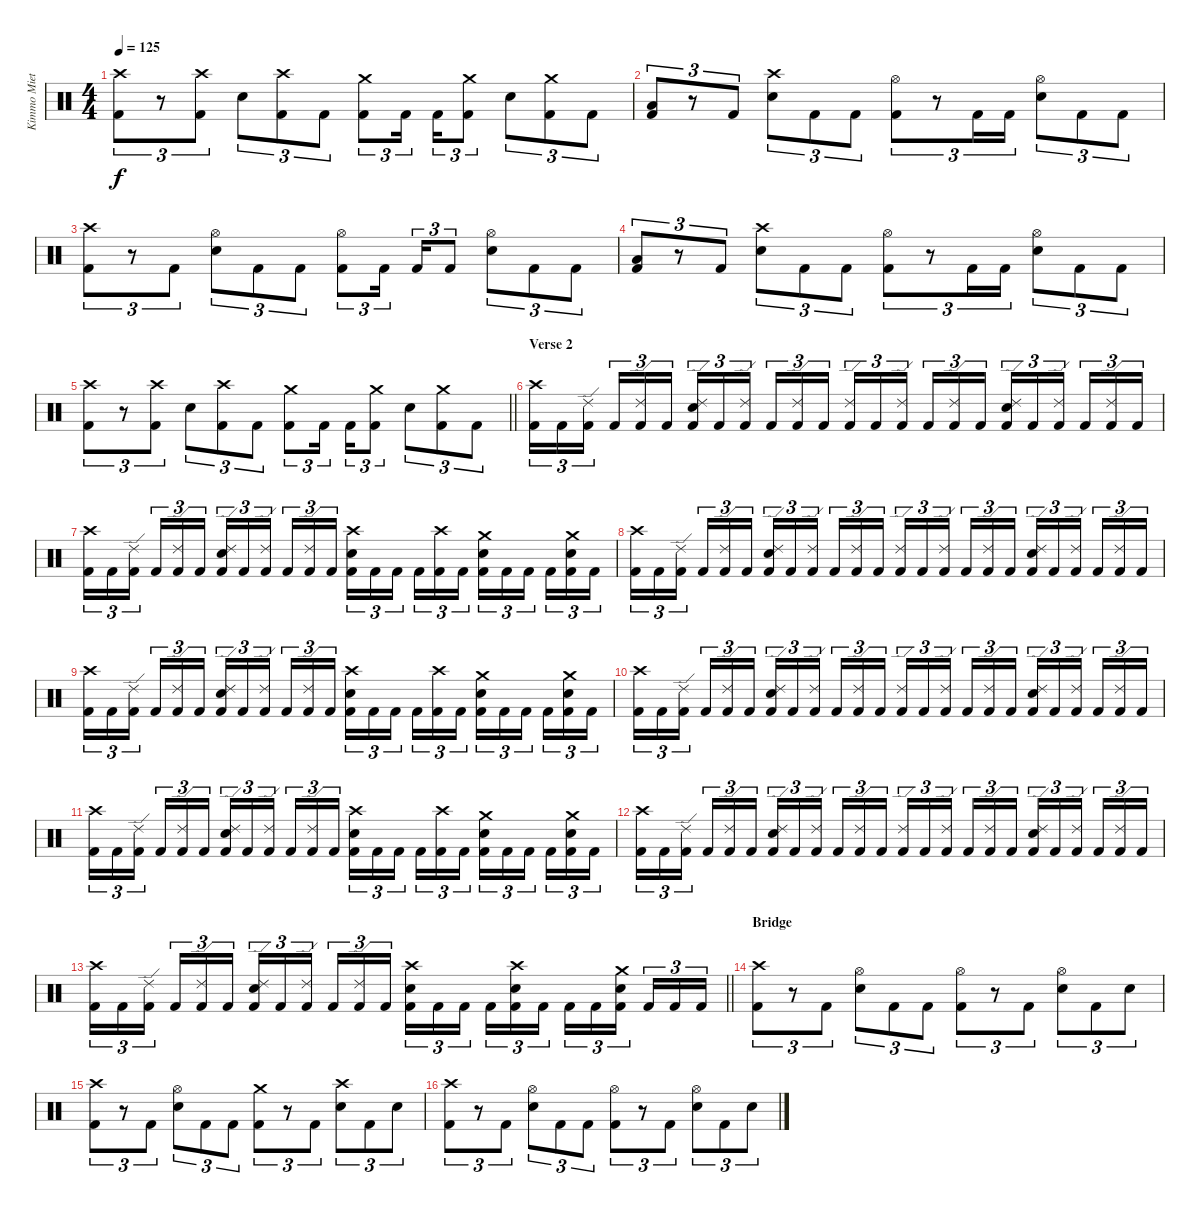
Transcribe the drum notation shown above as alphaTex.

\track ("Kimmo Miettinen" "Kimmo Miet") {instrument percussion}
\staff {score}
\articulation defaults
\ts (4 4)
\tempo 125
\clef neutral
\ks c
("Crash high (hit)" "Kick (hit) 2").8{tu (3 2) dy f} r.8{tu (3 2)} ("Crash high (hit)" "Kick (hit) 2").8{tu (3 2)} "Electric Snare (hit)".8{tu (3 2)} ("Crash high (hit)" "Kick (hit) 2").8{tu (3 2)} "Kick (hit) 2".8{tu (3 2)} ("Crash medium (hit)" "Kick (hit) 2").8{tu (3 2)} "Kick (hit) 2".16{tu (3 2) beam splitsecondary} "Kick (hit) 2".16{tu (3 2)} ("Crash medium (hit)" "Kick (hit) 2").8{tu (3 2)} "Electric Snare (hit)".8{tu (3 2)} ("Crash medium (hit)" "Kick (hit) 2").8{tu (3 2)} "Kick (hit) 2".8{tu (3 2)} |
("Low Floor Tom (hit)" "Kick (hit) 2").8{tu (3 2)} r.8{tu (3 2)} "Kick (hit) 2".8{tu (3 2)} ("Crash high (hit)" "Electric Snare (hit)").8{tu (3 2)} "Kick (hit) 2".8{tu (3 2)} "Kick (hit) 2".8{tu (3 2)} ("Hi-Hat (open)" "Kick (hit) 2").8{tu (3 2)} r.8{tu (3 2)} "Kick (hit) 2".16{tu (3 2)} "Kick (hit) 2".16{tu (3 2)} ("Hi-Hat (open)" "Electric Snare (hit)").8{tu (3 2)} "Kick (hit) 2".8{tu (3 2)} "Kick (hit) 2".8{tu (3 2)} |
("Crash high (hit)" "Kick (hit) 2").8{tu (3 2)} r.8{tu (3 2)} "Kick (hit) 2".8{tu (3 2)} ("Hi-Hat (open)" "Electric Snare (hit)").8{tu (3 2)} "Kick (hit) 2".8{tu (3 2)} "Kick (hit) 2".8{tu (3 2)} ("Hi-Hat (open)" "Kick (hit) 2").8{tu (3 2)} "Kick (hit) 2".16{tu (3 2) beam splitsecondary} "Kick (hit) 2".16{tu (3 2)} "Kick (hit) 2".8{tu (3 2)} ("Hi-Hat (open)" "Electric Snare (hit)").8{tu (3 2)} "Kick (hit) 2".8{tu (3 2)} "Kick (hit) 2".8{tu (3 2)} |
("Low Floor Tom (hit)" "Kick (hit) 2").8{tu (3 2)} r.8{tu (3 2)} "Kick (hit) 2".8{tu (3 2)} ("Crash high (hit)" "Electric Snare (hit)").8{tu (3 2)} "Kick (hit) 2".8{tu (3 2)} "Kick (hit) 2".8{tu (3 2)} ("Hi-Hat (open)" "Kick (hit) 2").8{tu (3 2)} r.8{tu (3 2)} "Kick (hit) 2".16{tu (3 2)} "Kick (hit) 2".16{tu (3 2)} ("Hi-Hat (open)" "Electric Snare (hit)").8{tu (3 2)} "Kick (hit) 2".8{tu (3 2)} "Kick (hit) 2".8{tu (3 2)} |
\barLineRight lightlight
("Crash high (hit)" "Kick (hit) 2").8{tu (3 2)} r.8{tu (3 2)} ("Crash high (hit)" "Kick (hit) 2").8{tu (3 2)} "Electric Snare (hit)".8{tu (3 2)} ("Crash high (hit)" "Kick (hit) 2").8{tu (3 2)} "Kick (hit) 2".8{tu (3 2)} ("Crash medium (hit)" "Kick (hit) 2").8{tu (3 2)} "Kick (hit) 2".16{tu (3 2) beam splitsecondary} "Kick (hit) 2".16{tu (3 2)} ("Crash medium (hit)" "Kick (hit) 2").8{tu (3 2)} "Electric Snare (hit)".8{tu (3 2)} ("Crash medium (hit)" "Kick (hit) 2").8{tu (3 2)} "Kick (hit) 2".8{tu (3 2)} |
\section ("" "Verse 2")
("Crash high (hit)" "Kick (hit) 2").16{tu (3 2)} "Kick (hit) 2".16{tu (3 2)} ("Ride (edge) 2" "Kick (hit) 2").16{tu (3 2) beam splitsecondary} "Kick (hit) 2".16{tu (3 2)} ("Ride (edge) 2" "Kick (hit) 2").16{tu (3 2)} "Kick (hit) 2".16{tu (3 2)} ("Ride (edge) 2" "Electric Snare (hit)" "Kick (hit) 2").16{tu (3 2)} "Kick (hit) 2".16{tu (3 2)} ("Ride (edge) 2" "Kick (hit) 2").16{tu (3 2) beam splitsecondary} "Kick (hit) 2".16{tu (3 2)} ("Ride (edge) 2" "Kick (hit) 2").16{tu (3 2)} "Kick (hit) 2".16{tu (3 2)} ("Ride (edge) 2" "Kick (hit) 2").16{tu (3 2)} "Kick (hit) 2".16{tu (3 2)} ("Ride (edge) 2" "Kick (hit) 2").16{tu (3 2) beam splitsecondary} "Kick (hit) 2".16{tu (3 2)} ("Ride (edge) 2" "Kick (hit) 2").16{tu (3 2)} "Kick (hit) 2".16{tu (3 2)} ("Ride (edge) 2" "Electric Snare (hit)" "Kick (hit) 2").16{tu (3 2)} "Kick (hit) 2".16{tu (3 2)} ("Ride (edge) 2" "Kick (hit) 2").16{tu (3 2) beam splitsecondary} "Kick (hit) 2".16{tu (3 2)} ("Ride (edge) 2" "Kick (hit) 2").16{tu (3 2)} "Kick (hit) 2".16{tu (3 2)} |
("Crash high (hit)" "Kick (hit) 2").16{tu (3 2)} "Kick (hit) 2".16{tu (3 2)} ("Ride (edge) 2" "Kick (hit) 2").16{tu (3 2) beam splitsecondary} "Kick (hit) 2".16{tu (3 2)} ("Ride (edge) 2" "Kick (hit) 2").16{tu (3 2)} "Kick (hit) 2".16{tu (3 2)} ("Ride (edge) 2" "Electric Snare (hit)" "Kick (hit) 2").16{tu (3 2)} "Kick (hit) 2".16{tu (3 2)} ("Ride (edge) 2" "Kick (hit) 2").16{tu (3 2) beam splitsecondary} "Kick (hit) 2".16{tu (3 2)} ("Ride (edge) 2" "Kick (hit) 2").16{tu (3 2)} "Kick (hit) 2".16{tu (3 2)} ("Crash high (hit)" "Electric Snare (hit)" "Kick (hit) 2").16{tu (3 2)} "Kick (hit) 2".16{tu (3 2)} "Kick (hit) 2".16{tu (3 2) beam splitsecondary} "Kick (hit) 2".16{tu (3 2)} ("Crash high (hit)" "Kick (hit) 2").16{tu (3 2)} "Kick (hit) 2".16{tu (3 2)} ("Crash medium (hit)" "Electric Snare (hit)" "Kick (hit) 2").16{tu (3 2)} "Kick (hit) 2".16{tu (3 2)} "Kick (hit) 2".16{tu (3 2) beam splitsecondary} "Kick (hit) 2".16{tu (3 2)} ("Crash medium (hit)" "Electric Snare (hit)" "Kick (hit) 2").16{tu (3 2)} "Kick (hit) 2".16{tu (3 2)} |
("Crash high (hit)" "Kick (hit) 2").16{tu (3 2)} "Kick (hit) 2".16{tu (3 2)} ("Ride (edge) 2" "Kick (hit) 2").16{tu (3 2) beam splitsecondary} "Kick (hit) 2".16{tu (3 2)} ("Ride (edge) 2" "Kick (hit) 2").16{tu (3 2)} "Kick (hit) 2".16{tu (3 2)} ("Ride (edge) 2" "Electric Snare (hit)" "Kick (hit) 2").16{tu (3 2)} "Kick (hit) 2".16{tu (3 2)} ("Ride (edge) 2" "Kick (hit) 2").16{tu (3 2) beam splitsecondary} "Kick (hit) 2".16{tu (3 2)} ("Ride (edge) 2" "Kick (hit) 2").16{tu (3 2)} "Kick (hit) 2".16{tu (3 2)} ("Ride (edge) 2" "Kick (hit) 2").16{tu (3 2)} "Kick (hit) 2".16{tu (3 2)} ("Ride (edge) 2" "Kick (hit) 2").16{tu (3 2) beam splitsecondary} "Kick (hit) 2".16{tu (3 2)} ("Ride (edge) 2" "Kick (hit) 2").16{tu (3 2)} "Kick (hit) 2".16{tu (3 2)} ("Ride (edge) 2" "Electric Snare (hit)" "Kick (hit) 2").16{tu (3 2)} "Kick (hit) 2".16{tu (3 2)} ("Ride (edge) 2" "Kick (hit) 2").16{tu (3 2) beam splitsecondary} "Kick (hit) 2".16{tu (3 2)} ("Ride (edge) 2" "Kick (hit) 2").16{tu (3 2)} "Kick (hit) 2".16{tu (3 2)} |
("Crash high (hit)" "Kick (hit) 2").16{tu (3 2)} "Kick (hit) 2".16{tu (3 2)} ("Ride (edge) 2" "Kick (hit) 2").16{tu (3 2) beam splitsecondary} "Kick (hit) 2".16{tu (3 2)} ("Ride (edge) 2" "Kick (hit) 2").16{tu (3 2)} "Kick (hit) 2".16{tu (3 2)} ("Ride (edge) 2" "Electric Snare (hit)" "Kick (hit) 2").16{tu (3 2)} "Kick (hit) 2".16{tu (3 2)} ("Ride (edge) 2" "Kick (hit) 2").16{tu (3 2) beam splitsecondary} "Kick (hit) 2".16{tu (3 2)} ("Ride (edge) 2" "Kick (hit) 2").16{tu (3 2)} "Kick (hit) 2".16{tu (3 2)} ("Crash high (hit)" "Electric Snare (hit)" "Kick (hit) 2").16{tu (3 2)} "Kick (hit) 2".16{tu (3 2)} "Kick (hit) 2".16{tu (3 2) beam splitsecondary} "Kick (hit) 2".16{tu (3 2)} ("Crash high (hit)" "Kick (hit) 2").16{tu (3 2)} "Kick (hit) 2".16{tu (3 2)} ("Crash medium (hit)" "Electric Snare (hit)" "Kick (hit) 2").16{tu (3 2)} "Kick (hit) 2".16{tu (3 2)} "Kick (hit) 2".16{tu (3 2) beam splitsecondary} "Kick (hit) 2".16{tu (3 2)} ("Crash medium (hit)" "Electric Snare (hit)" "Kick (hit) 2").16{tu (3 2)} "Kick (hit) 2".16{tu (3 2)} |
("Crash high (hit)" "Kick (hit) 2").16{tu (3 2)} "Kick (hit) 2".16{tu (3 2)} ("Ride (edge) 2" "Kick (hit) 2").16{tu (3 2) beam splitsecondary} "Kick (hit) 2".16{tu (3 2)} ("Ride (edge) 2" "Kick (hit) 2").16{tu (3 2)} "Kick (hit) 2".16{tu (3 2)} ("Ride (edge) 2" "Electric Snare (hit)" "Kick (hit) 2").16{tu (3 2)} "Kick (hit) 2".16{tu (3 2)} ("Ride (edge) 2" "Kick (hit) 2").16{tu (3 2) beam splitsecondary} "Kick (hit) 2".16{tu (3 2)} ("Ride (edge) 2" "Kick (hit) 2").16{tu (3 2)} "Kick (hit) 2".16{tu (3 2)} ("Ride (edge) 2" "Kick (hit) 2").16{tu (3 2)} "Kick (hit) 2".16{tu (3 2)} ("Ride (edge) 2" "Kick (hit) 2").16{tu (3 2) beam splitsecondary} "Kick (hit) 2".16{tu (3 2)} ("Ride (edge) 2" "Kick (hit) 2").16{tu (3 2)} "Kick (hit) 2".16{tu (3 2)} ("Ride (edge) 2" "Electric Snare (hit)" "Kick (hit) 2").16{tu (3 2)} "Kick (hit) 2".16{tu (3 2)} ("Ride (edge) 2" "Kick (hit) 2").16{tu (3 2) beam splitsecondary} "Kick (hit) 2".16{tu (3 2)} ("Ride (edge) 2" "Kick (hit) 2").16{tu (3 2)} "Kick (hit) 2".16{tu (3 2)} |
("Crash high (hit)" "Kick (hit) 2").16{tu (3 2)} "Kick (hit) 2".16{tu (3 2)} ("Ride (edge) 2" "Kick (hit) 2").16{tu (3 2) beam splitsecondary} "Kick (hit) 2".16{tu (3 2)} ("Ride (edge) 2" "Kick (hit) 2").16{tu (3 2)} "Kick (hit) 2".16{tu (3 2)} ("Ride (edge) 2" "Electric Snare (hit)" "Kick (hit) 2").16{tu (3 2)} "Kick (hit) 2".16{tu (3 2)} ("Ride (edge) 2" "Kick (hit) 2").16{tu (3 2) beam splitsecondary} "Kick (hit) 2".16{tu (3 2)} ("Ride (edge) 2" "Kick (hit) 2").16{tu (3 2)} "Kick (hit) 2".16{tu (3 2)} ("Crash high (hit)" "Electric Snare (hit)" "Kick (hit) 2").16{tu (3 2)} "Kick (hit) 2".16{tu (3 2)} "Kick (hit) 2".16{tu (3 2) beam splitsecondary} "Kick (hit) 2".16{tu (3 2)} ("Crash high (hit)" "Kick (hit) 2").16{tu (3 2)} "Kick (hit) 2".16{tu (3 2)} ("Crash medium (hit)" "Electric Snare (hit)" "Kick (hit) 2").16{tu (3 2)} "Kick (hit) 2".16{tu (3 2)} "Kick (hit) 2".16{tu (3 2) beam splitsecondary} "Kick (hit) 2".16{tu (3 2)} ("Crash medium (hit)" "Electric Snare (hit)" "Kick (hit) 2").16{tu (3 2)} "Kick (hit) 2".16{tu (3 2)} |
("Crash high (hit)" "Kick (hit) 2").16{tu (3 2)} "Kick (hit) 2".16{tu (3 2)} ("Ride (edge) 2" "Kick (hit) 2").16{tu (3 2) beam splitsecondary} "Kick (hit) 2".16{tu (3 2)} ("Ride (edge) 2" "Kick (hit) 2").16{tu (3 2)} "Kick (hit) 2".16{tu (3 2)} ("Ride (edge) 2" "Electric Snare (hit)" "Kick (hit) 2").16{tu (3 2)} "Kick (hit) 2".16{tu (3 2)} ("Ride (edge) 2" "Kick (hit) 2").16{tu (3 2) beam splitsecondary} "Kick (hit) 2".16{tu (3 2)} ("Ride (edge) 2" "Kick (hit) 2").16{tu (3 2)} "Kick (hit) 2".16{tu (3 2)} ("Ride (edge) 2" "Kick (hit) 2").16{tu (3 2)} "Kick (hit) 2".16{tu (3 2)} ("Ride (edge) 2" "Kick (hit) 2").16{tu (3 2) beam splitsecondary} "Kick (hit) 2".16{tu (3 2)} ("Ride (edge) 2" "Kick (hit) 2").16{tu (3 2)} "Kick (hit) 2".16{tu (3 2)} ("Ride (edge) 2" "Electric Snare (hit)" "Kick (hit) 2").16{tu (3 2)} "Kick (hit) 2".16{tu (3 2)} ("Ride (edge) 2" "Kick (hit) 2").16{tu (3 2) beam splitsecondary} "Kick (hit) 2".16{tu (3 2)} ("Ride (edge) 2" "Kick (hit) 2").16{tu (3 2)} "Kick (hit) 2".16{tu (3 2)} |
\barLineRight lightlight
("Crash high (hit)" "Kick (hit) 2").16{tu (3 2)} "Kick (hit) 2".16{tu (3 2)} ("Ride (edge) 2" "Kick (hit) 2").16{tu (3 2) beam splitsecondary} "Kick (hit) 2".16{tu (3 2)} ("Ride (edge) 2" "Kick (hit) 2").16{tu (3 2)} "Kick (hit) 2".16{tu (3 2)} ("Ride (edge) 2" "Electric Snare (hit)" "Kick (hit) 2").16{tu (3 2)} "Kick (hit) 2".16{tu (3 2)} ("Ride (edge) 2" "Kick (hit) 2").16{tu (3 2) beam splitsecondary} "Kick (hit) 2".16{tu (3 2)} ("Ride (edge) 2" "Kick (hit) 2").16{tu (3 2)} "Kick (hit) 2".16{tu (3 2)} ("Crash high (hit)" "Electric Snare (hit)" "Kick (hit) 2").16{tu (3 2)} "Kick (hit) 2".16{tu (3 2)} "Kick (hit) 2".16{tu (3 2) beam splitsecondary} "Kick (hit) 2".16{tu (3 2)} ("Crash high (hit)" "Electric Snare (hit)" "Kick (hit) 2").16{tu (3 2)} "Kick (hit) 2".16{tu (3 2)} "Kick (hit) 2".16{tu (3 2)} "Kick (hit) 2".16{tu (3 2)} ("Crash medium (hit)" "Electric Snare (hit)" "Kick (hit) 2").16{tu (3 2) beam splitsecondary} "Kick (hit) 2".16{tu (3 2)} "Kick (hit) 2".16{tu (3 2)} "Kick (hit) 2".16{tu (3 2)} |
\section ("" "Bridge")
("Crash high (hit)" "Kick (hit) 2").8{tu (3 2)} r.8{tu (3 2)} "Kick (hit) 2".8{tu (3 2)} ("Hi-Hat (open)" "Electric Snare (hit)").8{tu (3 2)} "Kick (hit) 2".8{tu (3 2)} "Kick (hit) 2".8{tu (3 2)} ("Hi-Hat (open)" "Kick (hit) 2").8{tu (3 2)} r.8{tu (3 2)} "Kick (hit) 2".8{tu (3 2)} ("Hi-Hat (open)" "Electric Snare (hit)").8{tu (3 2)} "Kick (hit) 2".8{tu (3 2)} "Electric Snare (hit)".8{tu (3 2)} |
("Crash high (hit)" "Kick (hit) 2").8{tu (3 2)} r.8{tu (3 2)} "Kick (hit) 2".8{tu (3 2)} ("Hi-Hat (open)" "Electric Snare (hit)").8{tu (3 2)} "Kick (hit) 2".8{tu (3 2)} "Kick (hit) 2".8{tu (3 2)} ("Crash medium (hit)" "Kick (hit) 2").8{tu (3 2)} r.8{tu (3 2)} "Kick (hit) 2".8{tu (3 2)} ("Crash high (hit)" "Electric Snare (hit)").8{tu (3 2)} "Kick (hit) 2".8{tu (3 2)} "Electric Snare (hit)".8{tu (3 2)} |
("Crash high (hit)" "Kick (hit) 2").8{tu (3 2)} r.8{tu (3 2)} "Kick (hit) 2".8{tu (3 2)} ("Hi-Hat (open)" "Electric Snare (hit)").8{tu (3 2)} "Kick (hit) 2".8{tu (3 2)} "Kick (hit) 2".8{tu (3 2)} ("Hi-Hat (open)" "Kick (hit) 2").8{tu (3 2)} r.8{tu (3 2)} "Kick (hit) 2".8{tu (3 2)} ("Hi-Hat (open)" "Electric Snare (hit)").8{tu (3 2)} "Kick (hit) 2".8{tu (3 2)} "Electric Snare (hit)".8{tu (3 2)}
